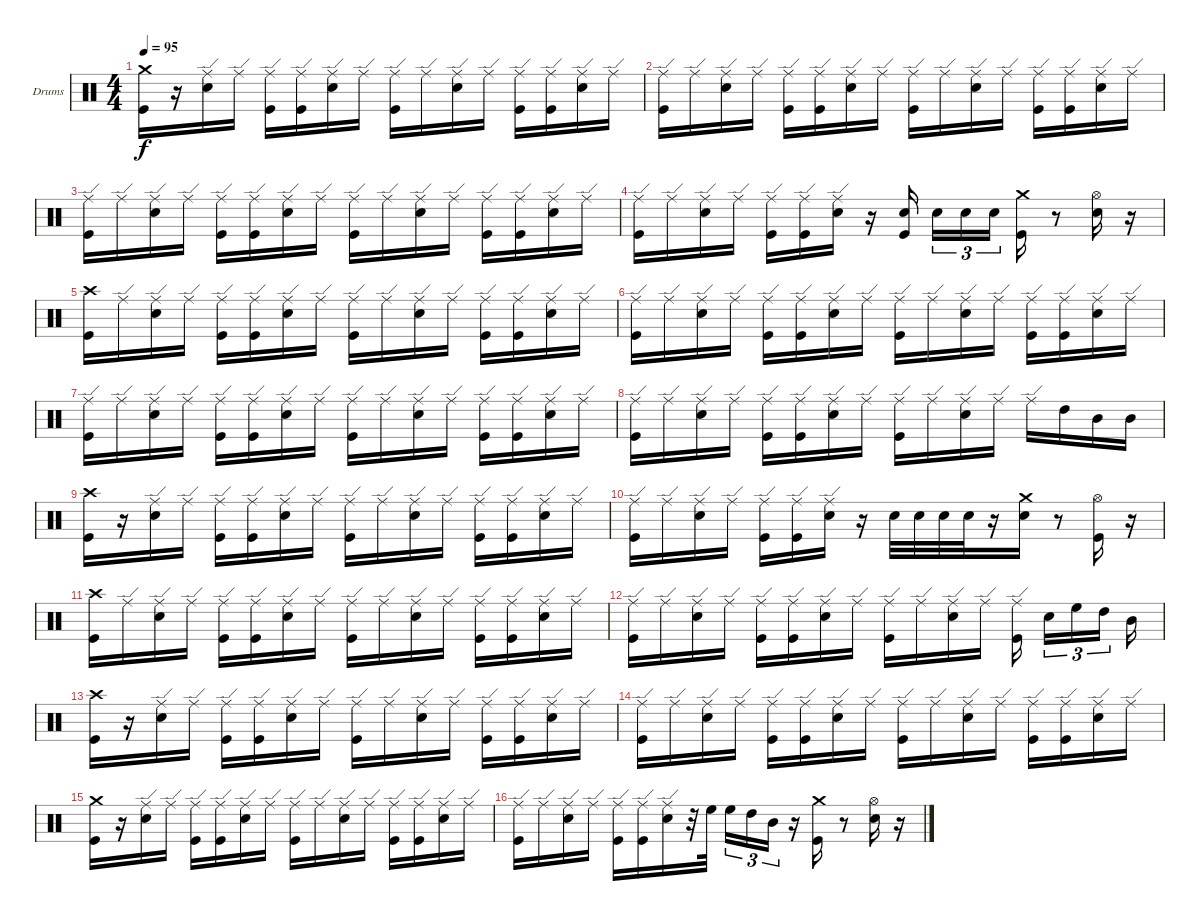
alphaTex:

\bracketExtendMode groupsimilarinstruments
\firstSystemTrackNameOrientation horizontal
\otherSystemsTrackNameOrientation horizontal
\track ("Drumkit" "Drums") {instrument percussion}
\staff {score}
\articulation defaults
\ts (4 4)
\tempo 95
\clef neutral
\ks c
("Crash medium (hit)" "Kick (hit)").16{dy f} r.16 ("Ride (edge)" "Snare (hit) 2").16 "Ride (edge)".16 ("Ride (edge)" "Kick (hit)").16 ("Ride (edge)" "Kick (hit)").16 ("Ride (edge)" "Snare (hit) 2").16 "Ride (edge)".16 ("Ride (edge)" "Kick (hit)").16 "Ride (edge)".16 ("Ride (edge)" "Snare (hit) 2").16 "Ride (edge)".16 ("Ride (edge)" "Kick (hit)").16 ("Ride (edge)" "Kick (hit)").16 ("Ride (edge)" "Snare (hit) 2").16 "Ride (edge)".16 |
("Ride (edge)" "Kick (hit)").16 "Ride (edge)".16 ("Ride (edge)" "Snare (hit) 2").16 "Ride (edge)".16 ("Ride (edge)" "Kick (hit)").16 ("Ride (edge)" "Kick (hit)").16 ("Ride (edge)" "Snare (hit) 2").16 "Ride (edge)".16 ("Ride (edge)" "Kick (hit)").16 "Ride (edge)".16 ("Ride (edge)" "Snare (hit) 2").16 "Ride (edge)".16 ("Ride (edge)" "Kick (hit)").16 ("Ride (edge)" "Kick (hit)").16 ("Ride (edge)" "Snare (hit) 2").16 "Ride (edge)".16 |
("Ride (edge)" "Kick (hit)").16 "Ride (edge)".16 ("Ride (edge)" "Snare (hit) 2").16 "Ride (edge)".16 ("Ride (edge)" "Kick (hit)").16 ("Ride (edge)" "Kick (hit)").16 ("Ride (edge)" "Snare (hit) 2").16 "Ride (edge)".16 ("Ride (edge)" "Kick (hit)").16 "Ride (edge)".16 ("Ride (edge)" "Snare (hit) 2").16 "Ride (edge)".16 ("Ride (edge)" "Kick (hit)").16 ("Ride (edge)" "Kick (hit)").16 ("Ride (edge)" "Snare (hit) 2").16 "Ride (edge)".16 |
("Ride (edge)" "Kick (hit)").16 "Ride (edge)".16 ("Ride (edge)" "Snare (hit) 2").16 "Ride (edge)".16 ("Ride (edge)" "Kick (hit)").16 ("Ride (edge)" "Kick (hit)").16 ("Ride (edge)" "Snare (hit) 2").16 r.16 ("Snare (hit) 2" "Kick (hit)").16 "Snare (hit) 2".16{tu (3 2)} "Snare (hit) 2".16{tu (3 2)} "Snare (hit) 2".16{tu (3 2)} ("Kick (hit)" "Crash medium (hit)").16 r.8 ("Hi-Hat (open)" "Snare (hit) 2").16 r.16 |
("Crash high (hit)" "Kick (hit)").16 "Ride (edge)".16 ("Ride (edge)" "Snare (hit) 2").16 "Ride (edge)".16 ("Ride (edge)" "Kick (hit)").16 ("Ride (edge)" "Kick (hit)").16 ("Ride (edge)" "Snare (hit) 2").16 "Ride (edge)".16 ("Ride (edge)" "Kick (hit)").16 "Ride (edge)".16 ("Ride (edge)" "Snare (hit) 2").16 "Ride (edge)".16 ("Ride (edge)" "Kick (hit)").16 ("Ride (edge)" "Kick (hit)").16 ("Ride (edge)" "Snare (hit) 2").16 "Ride (edge)".16 |
("Ride (edge)" "Kick (hit)").16 "Ride (edge)".16 ("Ride (edge)" "Snare (hit) 2").16 "Ride (edge)".16 ("Ride (edge)" "Kick (hit)").16 ("Ride (edge)" "Kick (hit)").16 ("Ride (edge)" "Snare (hit) 2").16 "Ride (edge)".16 ("Ride (edge)" "Kick (hit)").16 "Ride (edge)".16 ("Ride (edge)" "Snare (hit) 2").16 "Ride (edge)".16 ("Ride (edge)" "Kick (hit)").16 ("Ride (edge)" "Kick (hit)").16 ("Ride (edge)" "Snare (hit) 2").16 "Ride (edge)".16 |
("Ride (edge)" "Kick (hit)").16 "Ride (edge)".16 ("Ride (edge)" "Snare (hit) 2").16 "Ride (edge)".16 ("Ride (edge)" "Kick (hit)").16 ("Ride (edge)" "Kick (hit)").16 ("Ride (edge)" "Snare (hit) 2").16 "Ride (edge)".16 ("Ride (edge)" "Kick (hit)").16 "Ride (edge)".16 ("Ride (edge)" "Snare (hit) 2").16 "Ride (edge)".16 ("Ride (edge)" "Kick (hit)").16 ("Ride (edge)" "Kick (hit)").16 ("Ride (edge)" "Snare (hit) 2").16 "Ride (edge)".16 |
("Ride (edge)" "Kick (hit)").16 "Ride (edge)".16 ("Ride (edge)" "Snare (hit) 2").16 "Ride (edge)".16 ("Ride (edge)" "Kick (hit)").16 ("Ride (edge)" "Kick (hit)").16 ("Ride (edge)" "Snare (hit) 2").16 "Ride (edge)".16 ("Ride (edge)" "Kick (hit)").16 "Ride (edge)".16 ("Ride (edge)" "Snare (hit) 2").16 "Ride (edge)".16 "Ride (edge)".16 "High Tom (hit)".16 "Mid Tom (hit)".16 "Mid Tom (hit)".16 |
("Crash high (hit)" "Kick (hit)").16 r.16 ("Ride (edge)" "Snare (hit) 2").16 "Ride (edge)".16 ("Ride (edge)" "Kick (hit)").16 ("Ride (edge)" "Kick (hit)").16 ("Ride (edge)" "Snare (hit) 2").16 "Ride (edge)".16 ("Ride (edge)" "Kick (hit)").16 "Ride (edge)".16 ("Ride (edge)" "Snare (hit) 2").16 "Ride (edge)".16 ("Ride (edge)" "Kick (hit)").16 ("Ride (edge)" "Kick (hit)").16 ("Ride (edge)" "Snare (hit) 2").16 "Ride (edge)".16 |
("Ride (edge)" "Kick (hit)").16 "Ride (edge)".16 ("Ride (edge)" "Snare (hit) 2").16 "Ride (edge)".16 ("Ride (edge)" "Kick (hit)").16 ("Ride (edge)" "Kick (hit)").16 ("Ride (edge)" "Snare (hit) 2").16 r.16 "Snare (hit) 2".32 "Snare (hit) 2".32 "Snare (hit) 2".32 "Snare (hit) 2".32 r.16 ("Snare (hit) 2" "Crash medium (hit)").16 r.8 ("Hi-Hat (open)" "Kick (hit)").16 r.16 |
("Crash high (hit)" "Kick (hit)").16 "Ride (edge)".16 ("Ride (edge)" "Snare (hit) 2").16 "Ride (edge)".16 ("Ride (edge)" "Kick (hit)").16 ("Ride (edge)" "Kick (hit)").16 ("Ride (edge)" "Snare (hit) 2").16 "Ride (edge)".16 ("Ride (edge)" "Kick (hit)").16 "Ride (edge)".16 ("Ride (edge)" "Snare (hit) 2").16 "Ride (edge)".16 ("Ride (edge)" "Kick (hit)").16 ("Ride (edge)" "Kick (hit)").16 ("Ride (edge)" "Snare (hit) 2").16 "Ride (edge)".16 |
("Ride (edge)" "Kick (hit)").16 "Ride (edge)".16 ("Ride (edge)" "Snare (hit) 2").16 "Ride (edge)".16 ("Ride (edge)" "Kick (hit)").16 ("Ride (edge)" "Kick (hit)").16 ("Ride (edge)" "Snare (hit) 2").16 "Ride (edge)".16 ("Ride (edge)" "Kick (hit)").16 "Ride (edge)".16 ("Ride (edge)" "Snare (hit) 2").16 "Ride (edge)".16 ("Ride (edge)" "Kick (hit)").16 "Snare (hit) 2".16{tu (3 2)} "High Floor Tom (hit)".16{tu (3 2)} "High Tom (hit)".16{tu (3 2)} "Mid Tom (hit)".16 |
("Crash high (hit)" "Kick (hit)").16 r.16 ("Ride (edge)" "Snare (hit) 2").16 "Ride (edge)".16 ("Ride (edge)" "Kick (hit)").16 ("Ride (edge)" "Kick (hit)").16 ("Ride (edge)" "Snare (hit) 2").16 "Ride (edge)".16 ("Ride (edge)" "Kick (hit)").16 "Ride (edge)".16 ("Ride (edge)" "Snare (hit) 2").16 "Ride (edge)".16 ("Ride (edge)" "Kick (hit)").16 ("Ride (edge)" "Kick (hit)").16 ("Ride (edge)" "Snare (hit) 2").16 "Ride (edge)".16 |
("Ride (edge)" "Kick (hit)").16 "Ride (edge)".16 ("Ride (edge)" "Snare (hit) 2").16 "Ride (edge)".16 ("Ride (edge)" "Kick (hit)").16 ("Ride (edge)" "Kick (hit)").16 ("Ride (edge)" "Snare (hit) 2").16 "Ride (edge)".16 ("Ride (edge)" "Kick (hit)").16 "Ride (edge)".16 ("Ride (edge)" "Snare (hit) 2").16 "Ride (edge)".16 ("Ride (edge)" "Kick (hit)").16 ("Ride (edge)" "Kick (hit)").16 ("Ride (edge)" "Snare (hit) 2").16 "Ride (edge)".16 |
("Crash medium (hit)" "Kick (hit)").16 r.16 ("Ride (edge)" "Snare (hit) 2").16 "Ride (edge)".16 ("Ride (edge)" "Kick (hit)").16 ("Ride (edge)" "Kick (hit)").16 ("Ride (edge)" "Snare (hit) 2").16 "Ride (edge)".16 ("Ride (edge)" "Kick (hit)").16 "Ride (edge)".16 ("Ride (edge)" "Snare (hit) 2").16 "Ride (edge)".16 ("Ride (edge)" "Kick (hit)").16 ("Ride (edge)" "Kick (hit)").16 ("Ride (edge)" "Snare (hit) 2").16 "Ride (edge)".16 |
("Ride (edge)" "Kick (hit)").16 "Ride (edge)".16 ("Ride (edge)" "Snare (hit) 2").16 "Ride (edge)".16 ("Ride (edge)" "Kick (hit)").16 ("Ride (edge)" "Kick (hit)").16 ("Ride (edge)" "Snare (hit) 2").16 r.32 "High Floor Tom (hit)".32 "High Floor Tom (hit)".16{tu (3 2)} "High Tom (hit)".16{tu (3 2)} "Mid Tom (hit)".16{tu (3 2)} r.16 ("Crash medium (hit)" "Kick (hit)").16 r.8 ("Hi-Hat (open)" "Snare (hit) 2").16 r.16
